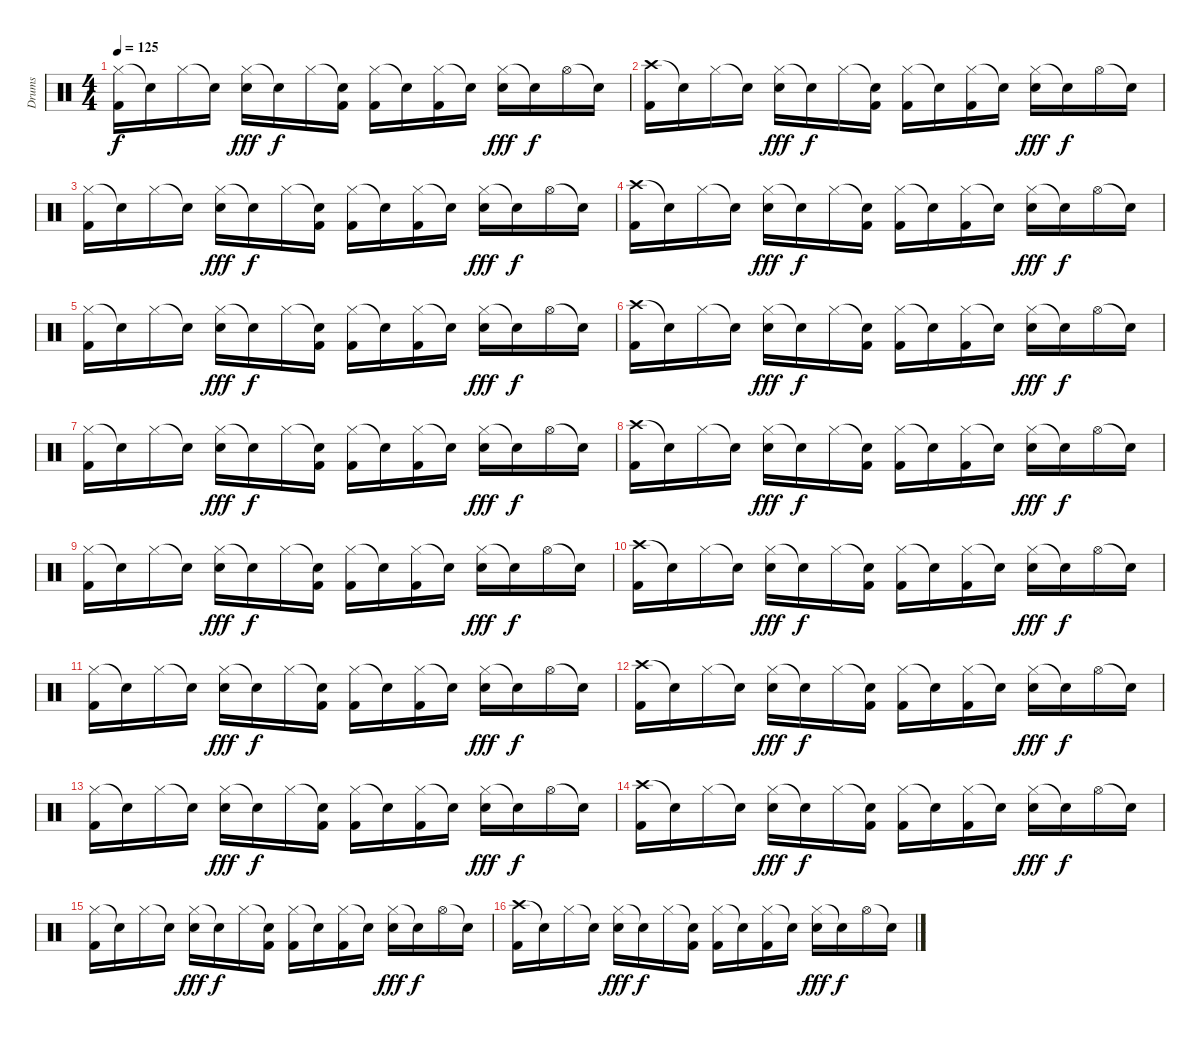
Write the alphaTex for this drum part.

\track ("Drums" "Drums") {instrument percussion}
\staff {score}
\articulation defaults
\ts (4 4)
\tempo 125
\clef neutral
\ks c
("Hi-Hat (closed)" "Kick (hit) 2").16{dy f} "Snare (hit)"{t}.16 "Hi-Hat (closed)".16 "Snare (hit)"{t}.16 ("Hi-Hat (closed)" "Electric Snare (hit)").16{dy fff} "Snare (hit)"{t}.16{dy f} "Hi-Hat (closed)".16 ("Snare (hit)"{t} "Kick (hit) 2").16 ("Hi-Hat (closed)" "Kick (hit) 2").16 "Snare (hit)"{t}.16 ("Hi-Hat (closed)" "Kick (hit) 2").16 "Snare (hit)"{t}.16 ("Hi-Hat (closed)" "Electric Snare (hit)").16{dy fff} "Snare (hit)"{t}.16{dy f} "Hi-Hat (open)".16 "Snare (hit)"{t}.16 |
("Crash high (hit)" "Kick (hit) 2").16 "Snare (hit)"{t}.16 "Hi-Hat (closed)".16 "Snare (hit)"{t}.16 ("Hi-Hat (closed)" "Electric Snare (hit)").16{dy fff} "Snare (hit)"{t}.16{dy f} "Hi-Hat (closed)".16 ("Snare (hit)"{t} "Kick (hit) 2").16 ("Hi-Hat (closed)" "Kick (hit) 2").16 "Snare (hit)"{t}.16 ("Hi-Hat (closed)" "Kick (hit) 2").16 "Snare (hit)"{t}.16 ("Hi-Hat (closed)" "Electric Snare (hit)").16{dy fff} "Snare (hit)"{t}.16{dy f} "Hi-Hat (open)".16 "Snare (hit)"{t}.16 |
("Hi-Hat (closed)" "Kick (hit) 2").16 "Snare (hit)"{t}.16 "Hi-Hat (closed)".16 "Snare (hit)"{t}.16 ("Hi-Hat (closed)" "Electric Snare (hit)").16{dy fff} "Snare (hit)"{t}.16{dy f} "Hi-Hat (closed)".16 ("Snare (hit)"{t} "Kick (hit) 2").16 ("Hi-Hat (closed)" "Kick (hit) 2").16 "Snare (hit)"{t}.16 ("Hi-Hat (closed)" "Kick (hit) 2").16 "Snare (hit)"{t}.16 ("Hi-Hat (closed)" "Electric Snare (hit)").16{dy fff} "Snare (hit)"{t}.16{dy f} "Hi-Hat (open)".16 "Snare (hit)"{t}.16 |
("Crash high (hit)" "Kick (hit) 2").16 "Snare (hit)"{t}.16 "Hi-Hat (closed)".16 "Snare (hit)"{t}.16 ("Hi-Hat (closed)" "Electric Snare (hit)").16{dy fff} "Snare (hit)"{t}.16{dy f} "Hi-Hat (closed)".16 ("Snare (hit)"{t} "Kick (hit) 2").16 ("Hi-Hat (closed)" "Kick (hit) 2").16 "Snare (hit)"{t}.16 ("Hi-Hat (closed)" "Kick (hit) 2").16 "Snare (hit)"{t}.16 ("Hi-Hat (closed)" "Electric Snare (hit)").16{dy fff} "Snare (hit)"{t}.16{dy f} "Hi-Hat (open)".16 "Snare (hit)"{t}.16 |
("Hi-Hat (closed)" "Kick (hit) 2").16 "Snare (hit)"{t}.16 "Hi-Hat (closed)".16 "Snare (hit)"{t}.16 ("Hi-Hat (closed)" "Electric Snare (hit)").16{dy fff} "Snare (hit)"{t}.16{dy f} "Hi-Hat (closed)".16 ("Snare (hit)"{t} "Kick (hit) 2").16 ("Hi-Hat (closed)" "Kick (hit) 2").16 "Snare (hit)"{t}.16 ("Hi-Hat (closed)" "Kick (hit) 2").16 "Snare (hit)"{t}.16 ("Hi-Hat (closed)" "Electric Snare (hit)").16{dy fff} "Snare (hit)"{t}.16{dy f} "Hi-Hat (open)".16 "Snare (hit)"{t}.16 |
("Crash high (hit)" "Kick (hit) 2").16 "Snare (hit)"{t}.16 "Hi-Hat (closed)".16 "Snare (hit)"{t}.16 ("Hi-Hat (closed)" "Electric Snare (hit)").16{dy fff} "Snare (hit)"{t}.16{dy f} "Hi-Hat (closed)".16 ("Snare (hit)"{t} "Kick (hit) 2").16 ("Hi-Hat (closed)" "Kick (hit) 2").16 "Snare (hit)"{t}.16 ("Hi-Hat (closed)" "Kick (hit) 2").16 "Snare (hit)"{t}.16 ("Hi-Hat (closed)" "Electric Snare (hit)").16{dy fff} "Snare (hit)"{t}.16{dy f} "Hi-Hat (open)".16 "Snare (hit)"{t}.16 |
("Hi-Hat (closed)" "Kick (hit) 2").16 "Snare (hit)"{t}.16 "Hi-Hat (closed)".16 "Snare (hit)"{t}.16 ("Hi-Hat (closed)" "Electric Snare (hit)").16{dy fff} "Snare (hit)"{t}.16{dy f} "Hi-Hat (closed)".16 ("Snare (hit)"{t} "Kick (hit) 2").16 ("Hi-Hat (closed)" "Kick (hit) 2").16 "Snare (hit)"{t}.16 ("Hi-Hat (closed)" "Kick (hit) 2").16 "Snare (hit)"{t}.16 ("Hi-Hat (closed)" "Electric Snare (hit)").16{dy fff} "Snare (hit)"{t}.16{dy f} "Hi-Hat (open)".16 "Snare (hit)"{t}.16 |
("Crash high (hit)" "Kick (hit) 2").16 "Snare (hit)"{t}.16 "Hi-Hat (closed)".16 "Snare (hit)"{t}.16 ("Hi-Hat (closed)" "Electric Snare (hit)").16{dy fff} "Snare (hit)"{t}.16{dy f} "Hi-Hat (closed)".16 ("Snare (hit)"{t} "Kick (hit) 2").16 ("Hi-Hat (closed)" "Kick (hit) 2").16 "Snare (hit)"{t}.16 ("Hi-Hat (closed)" "Kick (hit) 2").16 "Snare (hit)"{t}.16 ("Hi-Hat (closed)" "Electric Snare (hit)").16{dy fff} "Snare (hit)"{t}.16{dy f} "Hi-Hat (open)".16 "Snare (hit)"{t}.16 |
("Hi-Hat (closed)" "Kick (hit) 2").16 "Snare (hit)"{t}.16 "Hi-Hat (closed)".16 "Snare (hit)"{t}.16 ("Hi-Hat (closed)" "Electric Snare (hit)").16{dy fff} "Snare (hit)"{t}.16{dy f} "Hi-Hat (closed)".16 ("Snare (hit)"{t} "Kick (hit) 2").16 ("Hi-Hat (closed)" "Kick (hit) 2").16 "Snare (hit)"{t}.16 ("Hi-Hat (closed)" "Kick (hit) 2").16 "Snare (hit)"{t}.16 ("Hi-Hat (closed)" "Electric Snare (hit)").16{dy fff} "Snare (hit)"{t}.16{dy f} "Hi-Hat (open)".16 "Snare (hit)"{t}.16 |
("Crash high (hit)" "Kick (hit) 2").16 "Snare (hit)"{t}.16 "Hi-Hat (closed)".16 "Snare (hit)"{t}.16 ("Hi-Hat (closed)" "Electric Snare (hit)").16{dy fff} "Snare (hit)"{t}.16{dy f} "Hi-Hat (closed)".16 ("Snare (hit)"{t} "Kick (hit) 2").16 ("Hi-Hat (closed)" "Kick (hit) 2").16 "Snare (hit)"{t}.16 ("Hi-Hat (closed)" "Kick (hit) 2").16 "Snare (hit)"{t}.16 ("Hi-Hat (closed)" "Electric Snare (hit)").16{dy fff} "Snare (hit)"{t}.16{dy f} "Hi-Hat (open)".16 "Snare (hit)"{t}.16 |
("Hi-Hat (closed)" "Kick (hit) 2").16 "Snare (hit)"{t}.16 "Hi-Hat (closed)".16 "Snare (hit)"{t}.16 ("Hi-Hat (closed)" "Electric Snare (hit)").16{dy fff} "Snare (hit)"{t}.16{dy f} "Hi-Hat (closed)".16 ("Snare (hit)"{t} "Kick (hit) 2").16 ("Hi-Hat (closed)" "Kick (hit) 2").16 "Snare (hit)"{t}.16 ("Hi-Hat (closed)" "Kick (hit) 2").16 "Snare (hit)"{t}.16 ("Hi-Hat (closed)" "Electric Snare (hit)").16{dy fff} "Snare (hit)"{t}.16{dy f} "Hi-Hat (open)".16 "Snare (hit)"{t}.16 |
("Crash high (hit)" "Kick (hit) 2").16 "Snare (hit)"{t}.16 "Hi-Hat (closed)".16 "Snare (hit)"{t}.16 ("Hi-Hat (closed)" "Electric Snare (hit)").16{dy fff} "Snare (hit)"{t}.16{dy f} "Hi-Hat (closed)".16 ("Snare (hit)"{t} "Kick (hit) 2").16 ("Hi-Hat (closed)" "Kick (hit) 2").16 "Snare (hit)"{t}.16 ("Hi-Hat (closed)" "Kick (hit) 2").16 "Snare (hit)"{t}.16 ("Hi-Hat (closed)" "Electric Snare (hit)").16{dy fff} "Snare (hit)"{t}.16{dy f} "Hi-Hat (open)".16 "Snare (hit)"{t}.16 |
("Hi-Hat (closed)" "Kick (hit) 2").16 "Snare (hit)"{t}.16 "Hi-Hat (closed)".16 "Snare (hit)"{t}.16 ("Hi-Hat (closed)" "Electric Snare (hit)").16{dy fff} "Snare (hit)"{t}.16{dy f} "Hi-Hat (closed)".16 ("Snare (hit)"{t} "Kick (hit) 2").16 ("Hi-Hat (closed)" "Kick (hit) 2").16 "Snare (hit)"{t}.16 ("Hi-Hat (closed)" "Kick (hit) 2").16 "Snare (hit)"{t}.16 ("Hi-Hat (closed)" "Electric Snare (hit)").16{dy fff} "Snare (hit)"{t}.16{dy f} "Hi-Hat (open)".16 "Snare (hit)"{t}.16 |
("Crash high (hit)" "Kick (hit) 2").16 "Snare (hit)"{t}.16 "Hi-Hat (closed)".16 "Snare (hit)"{t}.16 ("Hi-Hat (closed)" "Electric Snare (hit)").16{dy fff} "Snare (hit)"{t}.16{dy f} "Hi-Hat (closed)".16 ("Snare (hit)"{t} "Kick (hit) 2").16 ("Hi-Hat (closed)" "Kick (hit) 2").16 "Snare (hit)"{t}.16 ("Hi-Hat (closed)" "Kick (hit) 2").16 "Snare (hit)"{t}.16 ("Hi-Hat (closed)" "Electric Snare (hit)").16{dy fff} "Snare (hit)"{t}.16{dy f} "Hi-Hat (open)".16 "Snare (hit)"{t}.16 |
("Hi-Hat (closed)" "Kick (hit) 2").16 "Snare (hit)"{t}.16 "Hi-Hat (closed)".16 "Snare (hit)"{t}.16 ("Hi-Hat (closed)" "Electric Snare (hit)").16{dy fff} "Snare (hit)"{t}.16{dy f} "Hi-Hat (closed)".16 ("Snare (hit)"{t} "Kick (hit) 2").16 ("Hi-Hat (closed)" "Kick (hit) 2").16 "Snare (hit)"{t}.16 ("Hi-Hat (closed)" "Kick (hit) 2").16 "Snare (hit)"{t}.16 ("Hi-Hat (closed)" "Electric Snare (hit)").16{dy fff} "Snare (hit)"{t}.16{dy f} "Hi-Hat (open)".16 "Snare (hit)"{t}.16 |
("Crash high (hit)" "Kick (hit) 2").16 "Snare (hit)"{t}.16 "Hi-Hat (closed)".16 "Snare (hit)"{t}.16 ("Hi-Hat (closed)" "Electric Snare (hit)").16{dy fff} "Snare (hit)"{t}.16{dy f} "Hi-Hat (closed)".16 ("Snare (hit)"{t} "Kick (hit) 2").16 ("Hi-Hat (closed)" "Kick (hit) 2").16 "Snare (hit)"{t}.16 ("Hi-Hat (closed)" "Kick (hit) 2").16 "Snare (hit)"{t}.16 ("Hi-Hat (closed)" "Electric Snare (hit)").16{dy fff} "Snare (hit)"{t}.16{dy f} "Hi-Hat (open)".16 "Snare (hit)"{t}.16
